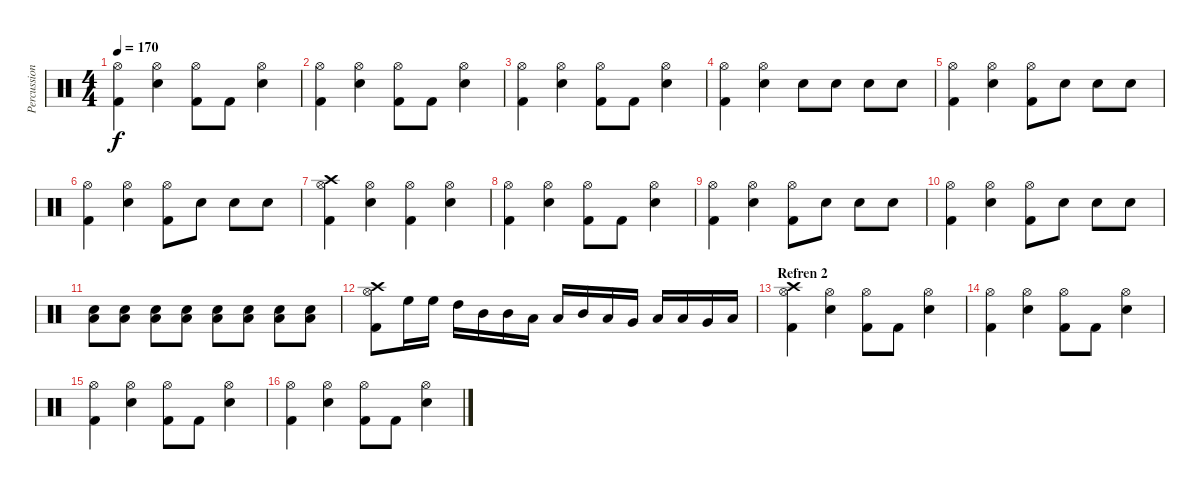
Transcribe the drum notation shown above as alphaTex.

\track ("Percussion - Who the fuck knows" "Percussion") {instrument percussion}
\staff {score}
\articulation defaults
\ts (4 4)
\tempo 170
\clef neutral
\ks c
("Kick (hit) 2" "Hi-Hat (open)").4{dy f} ("Hi-Hat (open)" "Snare (hit) 2").4 ("Hi-Hat (open)" "Kick (hit) 2").8 "Kick (hit) 2".8 ("Hi-Hat (open)" "Snare (hit) 2").4 |
("Hi-Hat (open)" "Kick (hit) 2").4 ("Hi-Hat (open)" "Snare (hit) 2").4 ("Hi-Hat (open)" "Kick (hit) 2").8 "Kick (hit) 2".8 ("Hi-Hat (open)" "Snare (hit) 2").4 |
("Hi-Hat (open)" "Kick (hit) 2").4 ("Hi-Hat (open)" "Snare (hit) 2").4 ("Hi-Hat (open)" "Kick (hit) 2").8 "Kick (hit) 2".8 ("Hi-Hat (open)" "Snare (hit) 2").4 |
("Hi-Hat (open)" "Kick (hit) 2").4 ("Hi-Hat (open)" "Snare (hit) 2").4 "Snare (hit) 2".8 "Snare (hit) 2".8 "Snare (hit) 2".8 "Snare (hit) 2".8 |
("Hi-Hat (open)" "Kick (hit) 2").4 ("Hi-Hat (open)" "Snare (hit) 2").4 ("Hi-Hat (open)" "Kick (hit) 2").8 "Snare (hit) 2".8 "Snare (hit) 2".8 "Snare (hit) 2".8 |
("Hi-Hat (open)" "Kick (hit) 2").4 ("Hi-Hat (open)" "Snare (hit) 2").4 ("Hi-Hat (open)" "Kick (hit) 2").8 "Snare (hit) 2".8 "Snare (hit) 2".8 "Snare (hit) 2".8 |
("Hi-Hat (open)" "Kick (hit) 2" "Crash high (hit)").4 ("Hi-Hat (open)" "Snare (hit) 2").4 ("Hi-Hat (open)" "Kick (hit) 2").4 ("Hi-Hat (open)" "Snare (hit) 2").4 |
("Hi-Hat (open)" "Kick (hit) 2").4 ("Hi-Hat (open)" "Snare (hit) 2").4 ("Hi-Hat (open)" "Kick (hit) 2").8 "Kick (hit) 2".8 ("Hi-Hat (open)" "Snare (hit) 2").4 |
("Hi-Hat (open)" "Kick (hit) 2").4 ("Hi-Hat (open)" "Snare (hit) 2").4 ("Hi-Hat (open)" "Kick (hit) 2").8 "Snare (hit) 2".8 "Snare (hit) 2".8 "Snare (hit) 2".8 |
("Hi-Hat (open)" "Kick (hit) 2").4 ("Hi-Hat (open)" "Snare (hit) 2").4 ("Hi-Hat (open)" "Kick (hit) 2").8 "Snare (hit) 2".8 "Snare (hit) 2".8 "Snare (hit) 2".8 |
("Low Tom (hit)" "Snare (hit) 2").8 ("Low Tom (hit)" "Snare (hit) 2").8 ("Low Tom (hit)" "Snare (hit) 2").8 ("Low Tom (hit)" "Snare (hit) 2").8 ("Low Tom (hit)" "Snare (hit) 2").8 ("Low Tom (hit)" "Snare (hit) 2").8 ("Low Tom (hit)" "Snare (hit) 2").8 ("Low Tom (hit)" "Snare (hit) 2").8 |
("Crash high (hit)" "Kick (hit) 2" "Hi-Hat (open)").8 "High Floor Tom (hit)".16 "High Floor Tom (hit)".16 "High Tom (hit)".16 "Mid Tom (hit)".16 "Mid Tom (hit)".16 "Low Tom (hit)".16 "Low Tom (hit)".16 "Mid Tom (hit)".16 "Low Tom (hit)".16 "Very Low Tom (hit)".16 "Low Tom (hit)".16 "Low Floor Tom (hit)".16 "Very Low Tom (hit)".16 "Low Tom (hit)".16 |
\section ("" "Refren 2")
("Crash high (hit)" "Kick (hit) 2" "Hi-Hat (open)").4 ("Hi-Hat (open)" "Snare (hit) 2").4 ("Hi-Hat (open)" "Kick (hit) 2").8 "Kick (hit) 2".8 ("Hi-Hat (open)" "Snare (hit) 2").4 |
("Hi-Hat (open)" "Kick (hit) 2").4 ("Hi-Hat (open)" "Snare (hit) 2").4 ("Hi-Hat (open)" "Kick (hit) 2").8 "Kick (hit) 2".8 ("Hi-Hat (open)" "Snare (hit) 2").4 |
("Hi-Hat (open)" "Kick (hit) 2").4 ("Hi-Hat (open)" "Snare (hit) 2").4 ("Hi-Hat (open)" "Kick (hit) 2").8 "Kick (hit) 2".8 ("Hi-Hat (open)" "Snare (hit) 2").4 |
("Hi-Hat (open)" "Kick (hit) 2").4 ("Hi-Hat (open)" "Snare (hit) 2").4 ("Hi-Hat (open)" "Kick (hit) 2").8 "Kick (hit) 2".8 ("Hi-Hat (open)" "Snare (hit) 2").4
